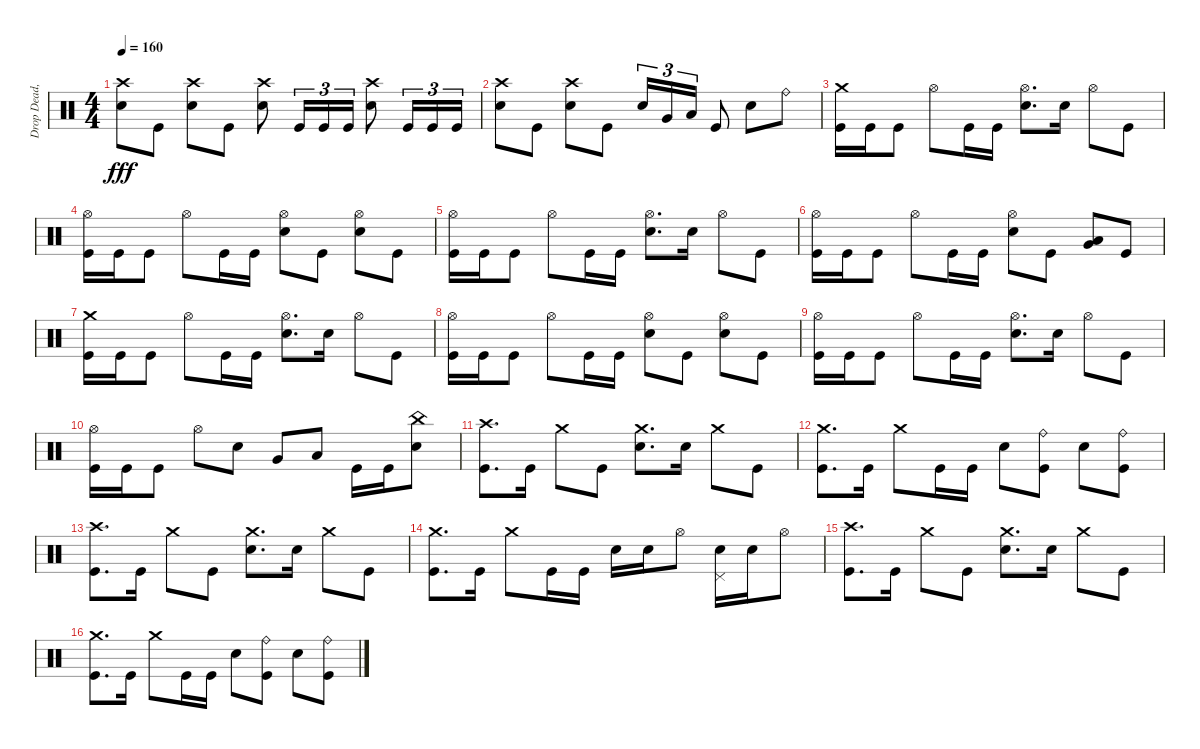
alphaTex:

\track ("Drop Dead, Johnny" "Drop Dead,") {instrument percussion}
\staff {score}
\articulation defaults
\ts (4 4)
\tempo 160
\clef neutral
\ks c
("Crash high (hit)" "Electric Snare (hit)").8{dy fff} "Kick (hit)".8 ("Crash high (hit)" "Electric Snare (hit)").8 "Kick (hit)".8 ("Crash high (hit)" "Electric Snare (hit)").8 "Kick (hit)".16{tu (3 2)} "Kick (hit)".16{tu (3 2)} "Kick (hit)".16{tu (3 2)} ("Crash high (hit)" "Electric Snare (hit)").8 "Kick (hit)".16{tu (3 2)} "Kick (hit)".16{tu (3 2)} "Kick (hit)".16{tu (3 2)} |
("Crash high (hit)" "Electric Snare (hit)").8 "Kick (hit)".8 ("Crash high (hit)" "Electric Snare (hit)").8 "Kick (hit)".8 "Electric Snare (hit)".16{tu (3 2)} "Very Low Tom (hit)".16{tu (3 2)} "Low Floor Tom (hit)".16{tu (3 2)} "Kick (hit)".8 "Electric Snare (hit)".8 "Ride (bell)".8 |
("Crash medium (hit)" "Kick (hit)").16 "Kick (hit)".16 "Kick (hit)".8 "Hi-Hat (open)".8 "Kick (hit)".16 "Kick (hit)".16 ("Hi-Hat (open)" "Electric Snare (hit)").8{d} "Electric Snare (hit)".16 "Hi-Hat (open)".8 "Kick (hit)".8 |
("Hi-Hat (open)" "Kick (hit)").16 "Kick (hit)".16 "Kick (hit)".8 "Hi-Hat (open)".8 "Kick (hit)".16 "Kick (hit)".16 ("Hi-Hat (open)" "Electric Snare (hit)").8 "Kick (hit)".8 ("Hi-Hat (open)" "Electric Snare (hit)").8 "Kick (hit)".8 |
("Hi-Hat (open)" "Kick (hit)").16 "Kick (hit)".16 "Kick (hit)".8 "Hi-Hat (open)".8 "Kick (hit)".16 "Kick (hit)".16 ("Hi-Hat (open)" "Electric Snare (hit)").8{d} "Electric Snare (hit)".16 "Hi-Hat (open)".8 "Kick (hit)".8 |
("Hi-Hat (open)" "Kick (hit)").16 "Kick (hit)".16 "Kick (hit)".8 "Hi-Hat (open)".8 "Kick (hit)".16 "Kick (hit)".16 ("Hi-Hat (open)" "Electric Snare (hit)").8 "Kick (hit)".8 ("Very Low Tom (hit)" "Low Floor Tom (hit)").8 "Kick (hit)".8 |
("Crash medium (hit)" "Kick (hit)").16 "Kick (hit)".16 "Kick (hit)".8 "Hi-Hat (open)".8 "Kick (hit)".16 "Kick (hit)".16 ("Hi-Hat (open)" "Electric Snare (hit)").8{d} "Electric Snare (hit)".16 "Hi-Hat (open)".8 "Kick (hit)".8 |
("Hi-Hat (open)" "Kick (hit)").16 "Kick (hit)".16 "Kick (hit)".8 "Hi-Hat (open)".8 "Kick (hit)".16 "Kick (hit)".16 ("Hi-Hat (open)" "Electric Snare (hit)").8 "Kick (hit)".8 ("Hi-Hat (open)" "Electric Snare (hit)").8 "Kick (hit)".8 |
("Hi-Hat (open)" "Kick (hit)").16 "Kick (hit)".16 "Kick (hit)".8 "Hi-Hat (open)".8 "Kick (hit)".16 "Kick (hit)".16 ("Hi-Hat (open)" "Electric Snare (hit)").8{d} "Electric Snare (hit)".16 "Hi-Hat (open)".8 "Kick (hit)".8 |
("Hi-Hat (open)" "Kick (hit)").16 "Kick (hit)".16 "Kick (hit)".8 "Hi-Hat (open)".8 "Electric Snare (hit)".8 "Very Low Tom (hit)".8 "Low Floor Tom (hit)".8 "Kick (hit)".16 "Kick (hit)".16 ("China (hit)" "Electric Snare (hit)").8 |
("Crash high (hit)" "Kick (hit)").8{d} "Kick (hit)".16 "Crash medium (hit)".8 "Kick (hit)".8 ("Crash medium (hit)" "Electric Snare (hit)").8{d} "Electric Snare (hit)".16 "Crash medium (hit)".8 "Kick (hit)".8 |
("Crash medium (hit)" "Kick (hit)").8{d} "Kick (hit)".16 "Crash medium (hit)".8 "Kick (hit)".16 "Kick (hit)".16 "Electric Snare (hit)".8 ("Ride (bell)" "Kick (hit)").8 "Electric Snare (hit)".8 ("Ride (bell)" "Kick (hit)").8 |
("Crash high (hit)" "Kick (hit)").8{d} "Kick (hit)".16 "Crash medium (hit)".8 "Kick (hit)".8 ("Crash medium (hit)" "Electric Snare (hit)").8{d} "Electric Snare (hit)".16 "Crash medium (hit)".8 "Kick (hit)".8 |
("Crash medium (hit)" "Kick (hit)").8{d} "Kick (hit)".16 "Crash medium (hit)".8 "Kick (hit)".16 "Kick (hit)".16 "Electric Snare (hit)".16 "Electric Snare (hit)".16 "Hi-Hat (open)".8 ("Pedal Hi-Hat (hit)" "Electric Snare (hit)").16 "Electric Snare (hit)".16 "Hi-Hat (open)".8 |
("Crash high (hit)" "Kick (hit)").8{d} "Kick (hit)".16 "Crash medium (hit)".8 "Kick (hit)".8 ("Crash medium (hit)" "Electric Snare (hit)").8{d} "Electric Snare (hit)".16 "Crash medium (hit)".8 "Kick (hit)".8 |
("Crash medium (hit)" "Kick (hit)").8{d} "Kick (hit)".16 "Crash medium (hit)".8 "Kick (hit)".16 "Kick (hit)".16 "Electric Snare (hit)".8 ("Ride (bell)" "Kick (hit)").8 "Electric Snare (hit)".8 ("Ride (bell)" "Kick (hit)").8
